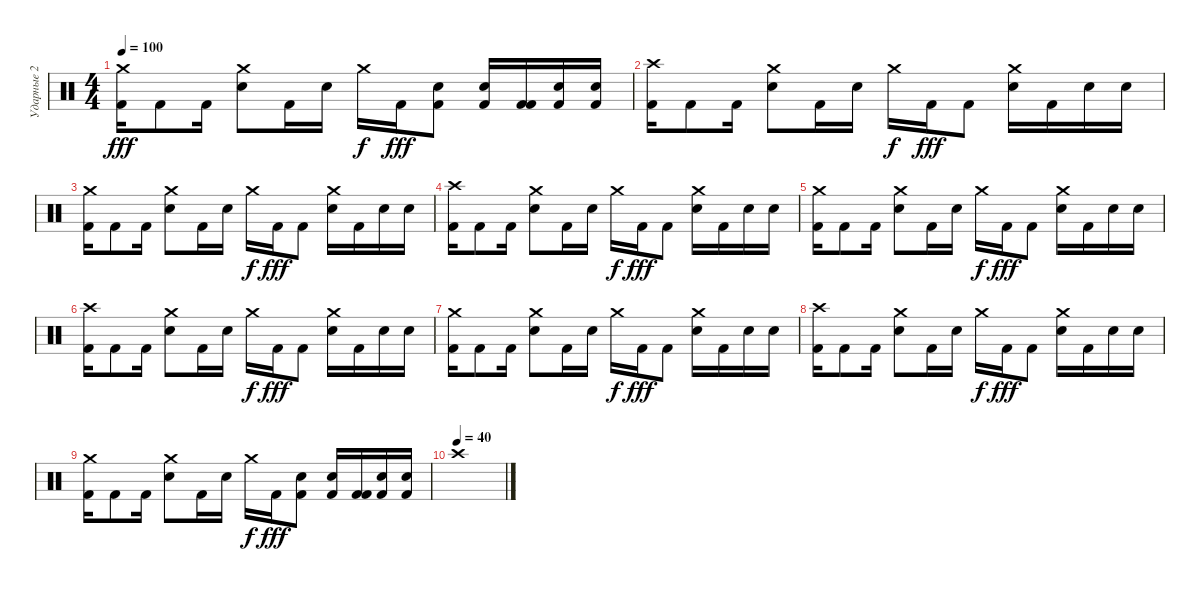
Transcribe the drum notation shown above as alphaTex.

\track ("Ударные 2" "Ударные 2") {instrument percussion}
\staff {score}
\articulation defaults
\ts (4 4)
\tempo 100
\clef neutral
\ks c
("Kick (hit) 2" "Crash medium (hit)").16{dy fff} "Kick (hit) 2".8 "Kick (hit) 2".16 ("Snare (hit) 2" "Crash medium (hit)").8 "Kick (hit) 2".16 "Snare (hit) 2".16 "Crash medium (hit)".16{dy f} "Kick (hit) 2".16{dy fff} ("Kick (hit) 2" "Snare (hit) 2").8 ("Snare (hit) 2" "Kick (hit) 2").16 ("Kick (hit) 2" "Kick (hit) 2").16 ("Snare (hit) 2" "Kick (hit) 2").16 ("Snare (hit) 2" "Kick (hit) 2").16 |
("Kick (hit) 2" "Crash high (hit)").16 "Kick (hit) 2".8 "Kick (hit) 2".16 ("Snare (hit) 2" "Crash medium (hit)").8 "Kick (hit) 2".16 "Snare (hit) 2".16 "Crash medium (hit)".16{dy f} "Kick (hit) 2".16{dy fff} "Kick (hit) 2".8 ("Snare (hit) 2" "Crash medium (hit)").16 "Kick (hit) 2".16 "Snare (hit) 2".16 "Snare (hit) 2".16 |
("Kick (hit) 2" "Crash medium (hit)").16 "Kick (hit) 2".8 "Kick (hit) 2".16 ("Snare (hit) 2" "Crash medium (hit)").8 "Kick (hit) 2".16 "Snare (hit) 2".16 "Crash medium (hit)".16{dy f} "Kick (hit) 2".16{dy fff} "Kick (hit) 2".8 ("Snare (hit) 2" "Crash medium (hit)").16 "Kick (hit) 2".16 "Snare (hit) 2".16 "Snare (hit) 2".16 |
("Kick (hit) 2" "Crash high (hit)").16 "Kick (hit) 2".8 "Kick (hit) 2".16 ("Snare (hit) 2" "Crash medium (hit)").8 "Kick (hit) 2".16 "Snare (hit) 2".16 "Crash medium (hit)".16{dy f} "Kick (hit) 2".16{dy fff} "Kick (hit) 2".8 ("Snare (hit) 2" "Crash medium (hit)").16 "Kick (hit) 2".16 "Snare (hit) 2".16 "Snare (hit) 2".16 |
("Kick (hit) 2" "Crash medium (hit)").16 "Kick (hit) 2".8 "Kick (hit) 2".16 ("Snare (hit) 2" "Crash medium (hit)").8 "Kick (hit) 2".16 "Snare (hit) 2".16 "Crash medium (hit)".16{dy f} "Kick (hit) 2".16{dy fff} "Kick (hit) 2".8 ("Snare (hit) 2" "Crash medium (hit)").16 "Kick (hit) 2".16 "Snare (hit) 2".16 "Snare (hit) 2".16 |
("Kick (hit) 2" "Crash high (hit)").16 "Kick (hit) 2".8 "Kick (hit) 2".16 ("Snare (hit) 2" "Crash medium (hit)").8 "Kick (hit) 2".16 "Snare (hit) 2".16 "Crash medium (hit)".16{dy f} "Kick (hit) 2".16{dy fff} "Kick (hit) 2".8 ("Snare (hit) 2" "Crash medium (hit)").16 "Kick (hit) 2".16 "Snare (hit) 2".16 "Snare (hit) 2".16 |
("Kick (hit) 2" "Crash medium (hit)").16 "Kick (hit) 2".8 "Kick (hit) 2".16 ("Snare (hit) 2" "Crash medium (hit)").8 "Kick (hit) 2".16 "Snare (hit) 2".16 "Crash medium (hit)".16{dy f} "Kick (hit) 2".16{dy fff} "Kick (hit) 2".8 ("Snare (hit) 2" "Crash medium (hit)").16 "Kick (hit) 2".16 "Snare (hit) 2".16 "Snare (hit) 2".16 |
("Kick (hit) 2" "Crash high (hit)").16 "Kick (hit) 2".8 "Kick (hit) 2".16 ("Snare (hit) 2" "Crash medium (hit)").8 "Kick (hit) 2".16 "Snare (hit) 2".16 "Crash medium (hit)".16{dy f} "Kick (hit) 2".16{dy fff} "Kick (hit) 2".8 ("Snare (hit) 2" "Crash medium (hit)").16 "Kick (hit) 2".16 "Snare (hit) 2".16 "Snare (hit) 2".16 |
("Kick (hit) 2" "Crash medium (hit)").16 "Kick (hit) 2".8 "Kick (hit) 2".16 ("Snare (hit) 2" "Crash medium (hit)").8 "Kick (hit) 2".16 "Snare (hit) 2".16 "Crash medium (hit)".16{dy f} "Kick (hit) 2".16{dy fff} ("Kick (hit) 2" "Snare (hit) 2").8 ("Snare (hit) 2" "Kick (hit) 2").16 ("Kick (hit) 2" "Kick (hit) 2").16 ("Snare (hit) 2" "Kick (hit) 2").16 ("Snare (hit) 2" "Kick (hit) 2").16 |
\tempo (40)
"Crash high (hit)".1
